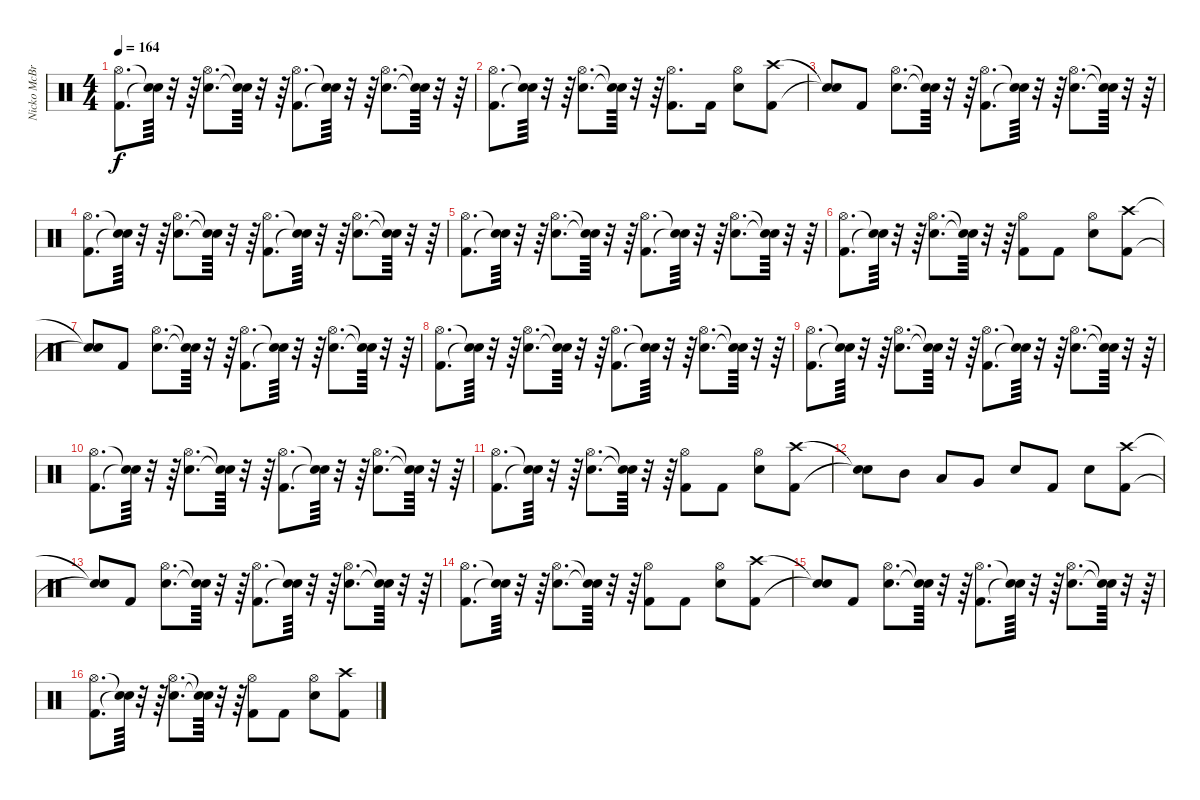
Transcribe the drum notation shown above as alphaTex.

\track ("Nicko McBrian (Drums)" "Nicko McBr") {instrument percussion}
\staff {score}
\articulation defaults
\ts (4 4)
\tempo 164
\clef neutral
\ks c
("Kick (hit) 2" "Hi-Hat (open)").8{d dy f} ("Snare (hit)"{t} "Snare (hit)"{t}).64 r.32 r.64 ("Snare (hit) 2" "Hi-Hat (open)").8{d} ("Snare (hit)"{t} "Snare (hit)"{t}).64 r.32 r.64 ("Kick (hit) 2" "Hi-Hat (open)").8{d} ("Snare (hit)"{t} "Snare (hit)"{t}).64 r.32 r.64 ("Snare (hit) 2" "Hi-Hat (open)").8{d} ("Snare (hit)"{t} "Snare (hit)"{t}).64 r.32 r.64 |
("Kick (hit) 2" "Hi-Hat (open)").8{d} ("Snare (hit)"{t} "Snare (hit)"{t}).64 r.32 r.64 ("Snare (hit) 2" "Hi-Hat (open)").8{d} ("Snare (hit)"{t} "Snare (hit)"{t}).64 r.32 r.64 ("Kick (hit) 2" "Hi-Hat (open)").8{d} "Kick (hit) 2".16 ("Snare (hit) 2" "Hi-Hat (open)").8 ("Kick (hit) 2" "Crash high (hit)").8 |
("Snare (hit)"{t} "Snare (hit)"{t}).8 "Kick (hit) 2".8 ("Snare (hit) 2" "Hi-Hat (open)").8{d} ("Snare (hit)"{t} "Snare (hit)"{t}).64 r.32 r.64 ("Kick (hit) 2" "Hi-Hat (open)").8{d} ("Snare (hit)"{t} "Snare (hit)"{t}).64 r.32 r.64 ("Snare (hit) 2" "Hi-Hat (open)").8{d} ("Snare (hit)"{t} "Snare (hit)"{t}).64 r.32 r.64 |
("Kick (hit) 2" "Hi-Hat (open)").8{d} ("Snare (hit)"{t} "Snare (hit)"{t}).64 r.32 r.64 ("Snare (hit) 2" "Hi-Hat (open)").8{d} ("Snare (hit)"{t} "Snare (hit)"{t}).64 r.32 r.64 ("Kick (hit) 2" "Hi-Hat (open)").8{d} ("Snare (hit)"{t} "Snare (hit)"{t}).64 r.32 r.64 ("Snare (hit) 2" "Hi-Hat (open)").8{d} ("Snare (hit)"{t} "Snare (hit)"{t}).64 r.32 r.64 |
("Kick (hit) 2" "Hi-Hat (open)").8{d} ("Snare (hit)"{t} "Snare (hit)"{t}).64 r.32 r.64 ("Snare (hit) 2" "Hi-Hat (open)").8{d} ("Snare (hit)"{t} "Snare (hit)"{t}).64 r.32 r.64 ("Kick (hit) 2" "Hi-Hat (open)").8{d} ("Snare (hit)"{t} "Snare (hit)"{t}).64 r.32 r.64 ("Snare (hit) 2" "Hi-Hat (open)").8{d} ("Snare (hit)"{t} "Snare (hit)"{t}).64 r.32 r.64 |
("Kick (hit) 2" "Hi-Hat (open)").8{d} ("Snare (hit)"{t} "Snare (hit)"{t}).64 r.32 r.64 ("Snare (hit) 2" "Hi-Hat (open)").8{d} ("Snare (hit)"{t} "Snare (hit)"{t}).64 r.32 r.64 ("Kick (hit) 2" "Hi-Hat (open)").8 "Kick (hit) 2".8 ("Snare (hit) 2" "Hi-Hat (open)").8 ("Kick (hit) 2" "Crash high (hit)").8 |
("Snare (hit)"{t} "Snare (hit)"{t}).8 "Kick (hit) 2".8 ("Snare (hit) 2" "Hi-Hat (open)").8{d} ("Snare (hit)"{t} "Snare (hit)"{t}).64 r.32 r.64 ("Kick (hit) 2" "Hi-Hat (open)").8{d} ("Snare (hit)"{t} "Snare (hit)"{t}).64 r.32 r.64 ("Snare (hit) 2" "Hi-Hat (open)").8{d} ("Snare (hit)"{t} "Snare (hit)"{t}).64 r.32 r.64 |
("Kick (hit) 2" "Hi-Hat (open)").8{d} ("Snare (hit)"{t} "Snare (hit)"{t}).64 r.32 r.64 ("Snare (hit) 2" "Hi-Hat (open)").8{d} ("Snare (hit)"{t} "Snare (hit)"{t}).64 r.32 r.64 ("Kick (hit) 2" "Hi-Hat (open)").8{d} ("Snare (hit)"{t} "Snare (hit)"{t}).64 r.32 r.64 ("Snare (hit) 2" "Hi-Hat (open)").8{d} ("Snare (hit)"{t} "Snare (hit)"{t}).64 r.32 r.64 |
("Kick (hit) 2" "Hi-Hat (open)").8{d} ("Snare (hit)"{t} "Snare (hit)"{t}).64 r.32 r.64 ("Snare (hit) 2" "Hi-Hat (open)").8{d} ("Snare (hit)"{t} "Snare (hit)"{t}).64 r.32 r.64 ("Kick (hit) 2" "Hi-Hat (open)").8{d} ("Snare (hit)"{t} "Snare (hit)"{t}).64 r.32 r.64 ("Snare (hit) 2" "Hi-Hat (open)").8{d} ("Snare (hit)"{t} "Snare (hit)"{t}).64 r.32 r.64 |
("Kick (hit) 2" "Hi-Hat (open)").8{d} ("Snare (hit)"{t} "Snare (hit)"{t}).64 r.32 r.64 ("Snare (hit) 2" "Hi-Hat (open)").8{d} ("Snare (hit)"{t} "Snare (hit)"{t}).64 r.32 r.64 ("Kick (hit) 2" "Hi-Hat (open)").8{d} ("Snare (hit)"{t} "Snare (hit)"{t}).64 r.32 r.64 ("Snare (hit) 2" "Hi-Hat (open)").8{d} ("Snare (hit)"{t} "Snare (hit)"{t}).64 r.32 r.64 |
("Kick (hit) 2" "Hi-Hat (open)").8{d} ("Snare (hit)"{t} "Snare (hit)"{t}).64 r.32 r.64 ("Snare (hit) 2" "Hi-Hat (open)").8{d} ("Snare (hit)"{t} "Snare (hit)"{t}).64 r.32 r.64 ("Kick (hit) 2" "Hi-Hat (open)").8 "Kick (hit) 2".8 ("Snare (hit) 2" "Hi-Hat (open)").8 ("Kick (hit) 2" "Crash high (hit)").8 |
("Snare (hit)"{t} "Snare (hit)"{t}).8 "Mid Tom (hit)".8 "Low Tom (hit)".8 "Very Low Tom (hit)".8 "Snare (hit) 2".8 "Kick (hit) 2".8 "Snare (hit) 2".8 ("Kick (hit) 2" "Crash high (hit)").8 |
("Snare (hit)"{t} "Snare (hit)"{t}).8 "Kick (hit) 2".8 ("Snare (hit) 2" "Hi-Hat (open)").8{d} ("Snare (hit)"{t} "Snare (hit)"{t}).64 r.32 r.64 ("Kick (hit) 2" "Hi-Hat (open)").8{d} ("Snare (hit)"{t} "Snare (hit)"{t}).64 r.32 r.64 ("Snare (hit) 2" "Hi-Hat (open)").8{d} ("Snare (hit)"{t} "Snare (hit)"{t}).64 r.32 r.64 |
("Kick (hit) 2" "Hi-Hat (open)").8{d} ("Snare (hit)"{t} "Snare (hit)"{t}).64 r.32 r.64 ("Snare (hit) 2" "Hi-Hat (open)").8{d} ("Snare (hit)"{t} "Snare (hit)"{t}).64 r.32 r.64 ("Kick (hit) 2" "Hi-Hat (open)").8 "Kick (hit) 2".8 ("Snare (hit) 2" "Hi-Hat (open)").8 ("Kick (hit) 2" "Crash high (hit)").8 |
("Snare (hit)"{t} "Snare (hit)"{t}).8 "Kick (hit) 2".8 ("Snare (hit) 2" "Hi-Hat (open)").8{d} ("Snare (hit)"{t} "Snare (hit)"{t}).64 r.32 r.64 ("Kick (hit) 2" "Hi-Hat (open)").8{d} ("Snare (hit)"{t} "Snare (hit)"{t}).64 r.32 r.64 ("Snare (hit) 2" "Hi-Hat (open)").8{d} ("Snare (hit)"{t} "Snare (hit)"{t}).64 r.32 r.64 |
("Kick (hit) 2" "Hi-Hat (open)").8{d} ("Snare (hit)"{t} "Snare (hit)"{t}).64 r.32 r.64 ("Snare (hit) 2" "Hi-Hat (open)").8{d} ("Snare (hit)"{t} "Snare (hit)"{t}).64 r.32 r.64 ("Kick (hit) 2" "Hi-Hat (open)").8 "Kick (hit) 2".8 ("Snare (hit) 2" "Hi-Hat (open)").8 ("Kick (hit) 2" "Crash high (hit)").8
